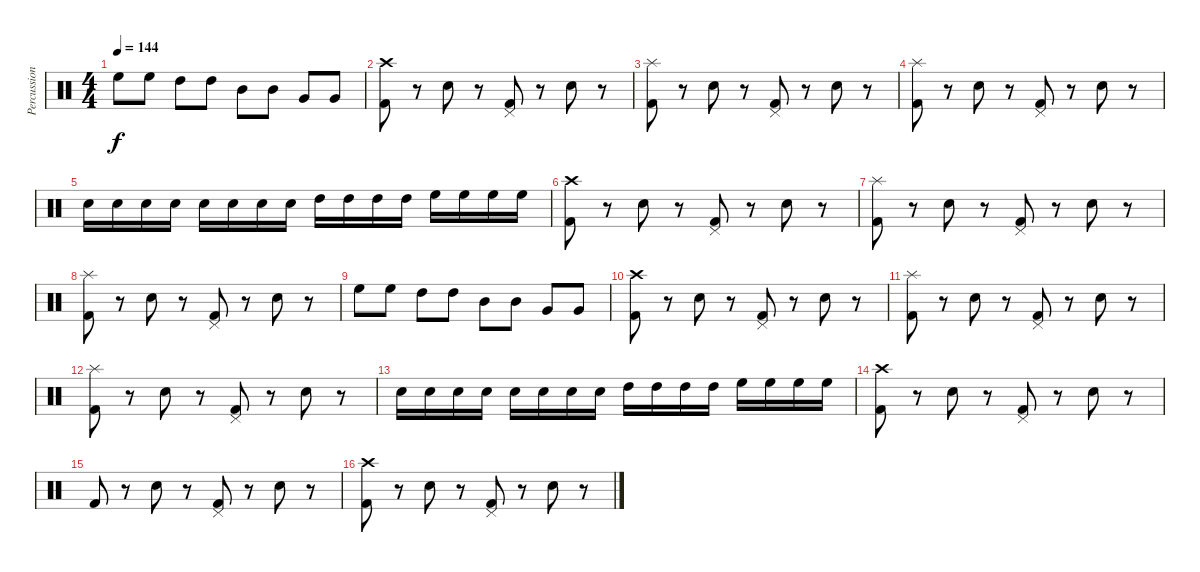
\track ("Percussion" "Percussion") {instrument percussion}
\staff {score}
\articulation defaults
\ts (4 4)
\tempo 144
\clef neutral
\ks c "High Floor Tom (hit)".8{dy f} "High Floor Tom (hit)".8 "High Tom (hit)".8 "High Tom (hit)".8 "Mid Tom (hit)".8 "Mid Tom (hit)".8 "Very Low Tom (hit)".8 "Very Low Tom (hit)".8
|
("Crash high (hit)" "Kick (hit) 2").8 r.8 "Snare (hit) 2".8 r.8 ("Pedal Hi-Hat (hit)" "Kick (hit) 2").8 r.8 "Snare (hit) 2".8 r.8 |
("Kick (hit) 2" "Splash (hit)").8 r.8 "Snare (hit) 2".8 r.8 ("Pedal Hi-Hat (hit)" "Kick (hit) 2").8 r.8 "Snare (hit) 2".8 r.8 |
("Kick (hit) 2" "Splash (hit)").8 r.8 "Snare (hit) 2".8 r.8 ("Pedal Hi-Hat (hit)" "Kick (hit) 2").8 r.8 "Snare (hit) 2".8 r.8 |
"Electric Snare (hit)".16 "Electric Snare (hit)".16 "Electric Snare (hit)".16 "Electric Snare (hit)".16 "Snare (hit) 2".16 "Snare (hit) 2".16 "Snare (hit) 2".16 "Snare (hit) 2".16 "High Tom (hit)".16 "High Tom (hit)".16 "High Tom (hit)".16 "High Tom (hit)".16 "High Floor Tom (hit)".16 "High Floor Tom (hit)".16 "High Floor Tom (hit)".16 "High Floor Tom (hit)".16 |
("Crash high (hit)" "Kick (hit) 2").8 r.8 "Snare (hit) 2".8 r.8 ("Pedal Hi-Hat (hit)" "Kick (hit) 2").8 r.8 "Snare (hit) 2".8 r.8 |
("Kick (hit) 2" "Splash (hit)").8 r.8 "Snare (hit) 2".8 r.8 ("Pedal Hi-Hat (hit)" "Kick (hit) 2").8 r.8 "Snare (hit) 2".8 r.8 |
("Kick (hit) 2" "Splash (hit)").8 r.8 "Snare (hit) 2".8 r.8 ("Pedal Hi-Hat (hit)" "Kick (hit) 2").8 r.8 "Snare (hit) 2".8 r.8 |
"High Floor Tom (hit)".8 "High Floor Tom (hit)".8 "High Tom (hit)".8 "High Tom (hit)".8 "Mid Tom (hit)".8 "Mid Tom (hit)".8 "Very Low Tom (hit)".8 "Very Low Tom (hit)".8 |
("Crash high (hit)" "Kick (hit) 2").8 r.8 "Snare (hit) 2".8 r.8 ("Pedal Hi-Hat (hit)" "Kick (hit) 2").8 r.8 "Snare (hit) 2".8 r.8 |
("Kick (hit) 2" "Splash (hit)").8 r.8 "Snare (hit) 2".8 r.8 ("Pedal Hi-Hat (hit)" "Kick (hit) 2").8 r.8 "Snare (hit) 2".8 r.8 |
("Kick (hit) 2" "Splash (hit)").8 r.8 "Snare (hit) 2".8 r.8 ("Pedal Hi-Hat (hit)" "Kick (hit) 2").8 r.8 "Snare (hit) 2".8 r.8 |
"Electric Snare (hit)".16 "Electric Snare (hit)".16 "Electric Snare (hit)".16 "Electric Snare (hit)".16 "Snare (hit) 2".16 "Snare (hit) 2".16 "Snare (hit) 2".16 "Snare (hit) 2".16 "High Tom (hit)".16 "High Tom (hit)".16 "High Tom (hit)".16 "High Tom (hit)".16 "High Floor Tom (hit)".16 "High Floor Tom (hit)".16 "High Floor Tom (hit)".16 "High Floor Tom (hit)".16 |
("Kick (hit) 2" "Crash high (hit)").8 r.8 "Snare (hit) 2".8 r.8 ("Pedal Hi-Hat (hit)" "Kick (hit) 2").8 r.8 "Snare (hit) 2".8 r.8 |
"Kick (hit) 2".8 r.8 "Snare (hit) 2".8 r.8 ("Pedal Hi-Hat (hit)" "Kick (hit) 2").8 r.8 "Snare (hit) 2".8 r.8 |
("Kick (hit) 2" "Crash high (hit)").8 r.8 "Snare (hit) 2".8 r.8 ("Pedal Hi-Hat (hit)" "Kick (hit) 2").8 r.8 "Snare (hit) 2".8 r.8
